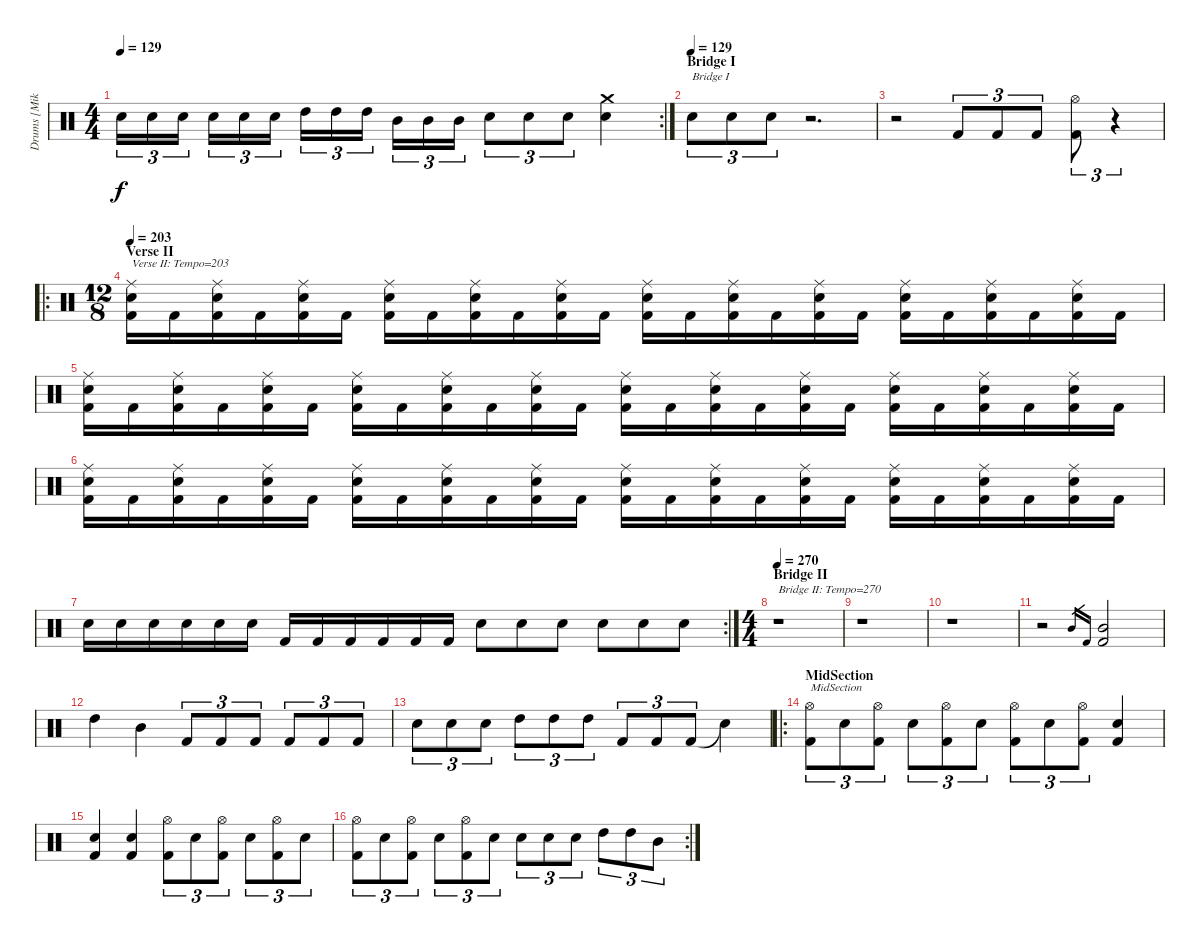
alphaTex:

\track ("Drums [Mike Smith]" "Drums [Mik") {instrument percussion}
\staff {score}
\articulation defaults
\rc 2
\ts (4 4)
\tempo 129
\clef neutral
\ks c "Electric Snare (hit)".16{tu (3 2) dy f} "Electric Snare (hit)".16{tu (3 2)} "Electric Snare (hit)".16{tu (3 2)} "Electric Snare (hit)".16{tu (3 2)} "Electric Snare (hit)".16{tu (3 2)} "Electric Snare (hit)".16{tu (3 2)} "High Tom (hit)".16{tu (3 2)} "High Tom (hit)".16{tu (3 2)} "High Tom (hit)".16{tu (3 2)} "Mid Tom (hit)".16{tu (3 2)} "Mid Tom (hit)".16{tu (3 2)} "Mid Tom (hit)".16{tu (3 2)} "Electric Snare (hit)".8{tu (3 2)} "Electric Snare (hit)".8{tu (3 2)} "Electric Snare (hit)".8{tu (3 2)}
("Crash medium (hit)" "Electric Snare (hit)").4 |
\section ("" "Bridge I")
\tempo (129)
"Electric Snare (hit)".8{tu (3 2) txt "Bridge I"} "Electric Snare (hit)".8{tu (3 2)} "Electric Snare (hit)".8{tu (3 2)} r.2{d} |
r.2 "Kick (hit) 2".8{tu (3 2)} "Kick (hit) 2".8{tu (3 2)} "Kick (hit) 2".8{tu (3 2)} ("Hi-Hat (open)" "Kick (hit) 2").8{tu (3 2)} r.4{tu (3 2)} |
\ro
\ts (12 8)
\section ("" "Verse II")
\tempo 203
("Ride (middle)" "Electric Snare (hit)" "Kick (hit) 2").16{txt "Verse II: Tempo=203"} "Kick (hit) 2".16 ("Ride (middle)" "Electric Snare (hit)" "Kick (hit) 2").16 "Kick (hit) 2".16 ("Ride (middle)" "Electric Snare (hit)" "Kick (hit) 2").16 "Kick (hit) 2".16 ("Ride (middle)" "Electric Snare (hit)" "Kick (hit) 2").16 "Kick (hit) 2".16 ("Ride (middle)" "Electric Snare (hit)" "Kick (hit) 2").16 "Kick (hit) 2".16 ("Ride (middle)" "Electric Snare (hit)" "Kick (hit) 2").16 "Kick (hit) 2".16 ("Ride (middle)" "Electric Snare (hit)" "Kick (hit) 2").16 "Kick (hit) 2".16 ("Ride (middle)" "Electric Snare (hit)" "Kick (hit) 2").16 "Kick (hit) 2".16 ("Ride (middle)" "Electric Snare (hit)" "Kick (hit) 2").16 "Kick (hit) 2".16 ("Ride (middle)" "Electric Snare (hit)" "Kick (hit) 2").16 "Kick (hit) 2".16 ("Ride (middle)" "Electric Snare (hit)" "Kick (hit) 2").16 "Kick (hit) 2".16 ("Ride (middle)" "Electric Snare (hit)" "Kick (hit) 2").16 "Kick (hit) 2".16 |
("Ride (middle)" "Electric Snare (hit)" "Kick (hit) 2").16 "Kick (hit) 2".16 ("Ride (middle)" "Electric Snare (hit)" "Kick (hit) 2").16 "Kick (hit) 2".16 ("Ride (middle)" "Electric Snare (hit)" "Kick (hit) 2").16 "Kick (hit) 2".16 ("Ride (middle)" "Electric Snare (hit)" "Kick (hit) 2").16 "Kick (hit) 2".16 ("Ride (middle)" "Electric Snare (hit)" "Kick (hit) 2").16 "Kick (hit) 2".16 ("Ride (middle)" "Electric Snare (hit)" "Kick (hit) 2").16 "Kick (hit) 2".16 ("Ride (middle)" "Electric Snare (hit)" "Kick (hit) 2").16 "Kick (hit) 2".16 ("Ride (middle)" "Electric Snare (hit)" "Kick (hit) 2").16 "Kick (hit) 2".16 ("Ride (middle)" "Electric Snare (hit)" "Kick (hit) 2").16 "Kick (hit) 2".16 ("Ride (middle)" "Electric Snare (hit)" "Kick (hit) 2").16 "Kick (hit) 2".16 ("Ride (middle)" "Electric Snare (hit)" "Kick (hit) 2").16 "Kick (hit) 2".16 ("Ride (middle)" "Electric Snare (hit)" "Kick (hit) 2").16 "Kick (hit) 2".16 |
("Ride (middle)" "Electric Snare (hit)" "Kick (hit) 2").16 "Kick (hit) 2".16 ("Ride (middle)" "Electric Snare (hit)" "Kick (hit) 2").16 "Kick (hit) 2".16 ("Ride (middle)" "Electric Snare (hit)" "Kick (hit) 2").16 "Kick (hit) 2".16 ("Ride (middle)" "Electric Snare (hit)" "Kick (hit) 2").16 "Kick (hit) 2".16 ("Ride (middle)" "Electric Snare (hit)" "Kick (hit) 2").16 "Kick (hit) 2".16 ("Ride (middle)" "Electric Snare (hit)" "Kick (hit) 2").16 "Kick (hit) 2".16 ("Ride (middle)" "Electric Snare (hit)" "Kick (hit) 2").16 "Kick (hit) 2".16 ("Ride (middle)" "Electric Snare (hit)" "Kick (hit) 2").16 "Kick (hit) 2".16 ("Ride (middle)" "Electric Snare (hit)" "Kick (hit) 2").16 "Kick (hit) 2".16 ("Ride (middle)" "Electric Snare (hit)" "Kick (hit) 2").16 "Kick (hit) 2".16 ("Ride (middle)" "Electric Snare (hit)" "Kick (hit) 2").16 "Kick (hit) 2".16 ("Ride (middle)" "Electric Snare (hit)" "Kick (hit) 2").16 "Kick (hit) 2".16 |
\rc 2 "Electric Snare (hit)".16 "Electric Snare (hit)".16 "Electric Snare (hit)".16 "Electric Snare (hit)".16 "Electric Snare (hit)".16 "Electric Snare (hit)".16 "Kick (hit) 2".16 "Kick (hit) 2".16 "Kick (hit) 2".16 "Kick (hit) 2".16 "Kick (hit) 2".16 "Kick (hit) 2".16 "Electric Snare (hit)".8 "Electric Snare (hit)".8 "Electric Snare (hit)".8 "Electric Snare (hit)".8 "Electric Snare (hit)".8 "Electric Snare (hit)".8
|
\ts (4 4)
\section ("" "Bridge II")
\tempo 270
r.1{txt "Bridge II: Tempo=270"} |
r.1 |
r.1 |
r.2 "Mid Tom (hit)".16{gr} "Kick (hit) 2".16{gr} ("Mid Tom (hit)" "Kick (hit) 2").2 |
"High Tom (hit)".4 "Mid Tom (hit)".4 "Kick (hit) 2".8{tu (3 2)} "Kick (hit) 2".8{tu (3 2)} "Kick (hit) 2".8{tu (3 2)} "Kick (hit) 2".8{tu (3 2)} "Kick (hit) 2".8{tu (3 2)} "Kick (hit) 2".8{tu (3 2)} |
"Electric Snare (hit)".8{tu (3 2)} "Electric Snare (hit)".8{tu (3 2)} "Electric Snare (hit)".8{tu (3 2)} "High Tom (hit)".8{tu (3 2)} "High Tom (hit)".8{tu (3 2)} "High Tom (hit)".8{tu (3 2)} "Kick (hit) 2".8{tu (3 2)} "Kick (hit) 2".8{tu (3 2)} "Kick (hit) 2".8{tu (3 2)} "Snare (hit)"{t}.4 |
\ro
\section ("" "MidSection")
("Hi-Hat (open)" "Kick (hit) 2").8{tu (3 2) txt "MidSection"} "Electric Snare (hit)".8{tu (3 2)} ("Hi-Hat (open)" "Kick (hit) 2").8{tu (3 2)} "Electric Snare (hit)".8{tu (3 2)} ("Hi-Hat (open)" "Kick (hit) 2").8{tu (3 2)} "Electric Snare (hit)".8{tu (3 2)} ("Hi-Hat (open)" "Kick (hit) 2").8{tu (3 2)} "Electric Snare (hit)".8{tu (3 2)} ("Hi-Hat (open)" "Kick (hit) 2").8{tu (3 2)} ("Electric Snare (hit)" "Kick (hit) 2").4 |
("Electric Snare (hit)" "Kick (hit) 2").4 ("Electric Snare (hit)" "Kick (hit) 2").4 ("Hi-Hat (open)" "Kick (hit) 2").8{tu (3 2)} "Electric Snare (hit)".8{tu (3 2)} ("Hi-Hat (open)" "Kick (hit) 2").8{tu (3 2)} "Electric Snare (hit)".8{tu (3 2)} ("Hi-Hat (open)" "Kick (hit) 2").8{tu (3 2)} "Electric Snare (hit)".8{tu (3 2)} |
\rc 2
("Hi-Hat (open)" "Kick (hit) 2").8{tu (3 2)} "Electric Snare (hit)".8{tu (3 2)} ("Hi-Hat (open)" "Kick (hit) 2").8{tu (3 2)} "Electric Snare (hit)".8{tu (3 2)} ("Hi-Hat (open)" "Kick (hit) 2").8{tu (3 2)} "Electric Snare (hit)".8{tu (3 2)} "Electric Snare (hit)".8{tu (3 2)} "Electric Snare (hit)".8{tu (3 2)} "Electric Snare (hit)".8{tu (3 2)} "High Tom (hit)".8{tu (3 2)} "High Tom (hit)".8{tu (3 2)} "Mid Tom (hit)".8{tu (3 2)}
